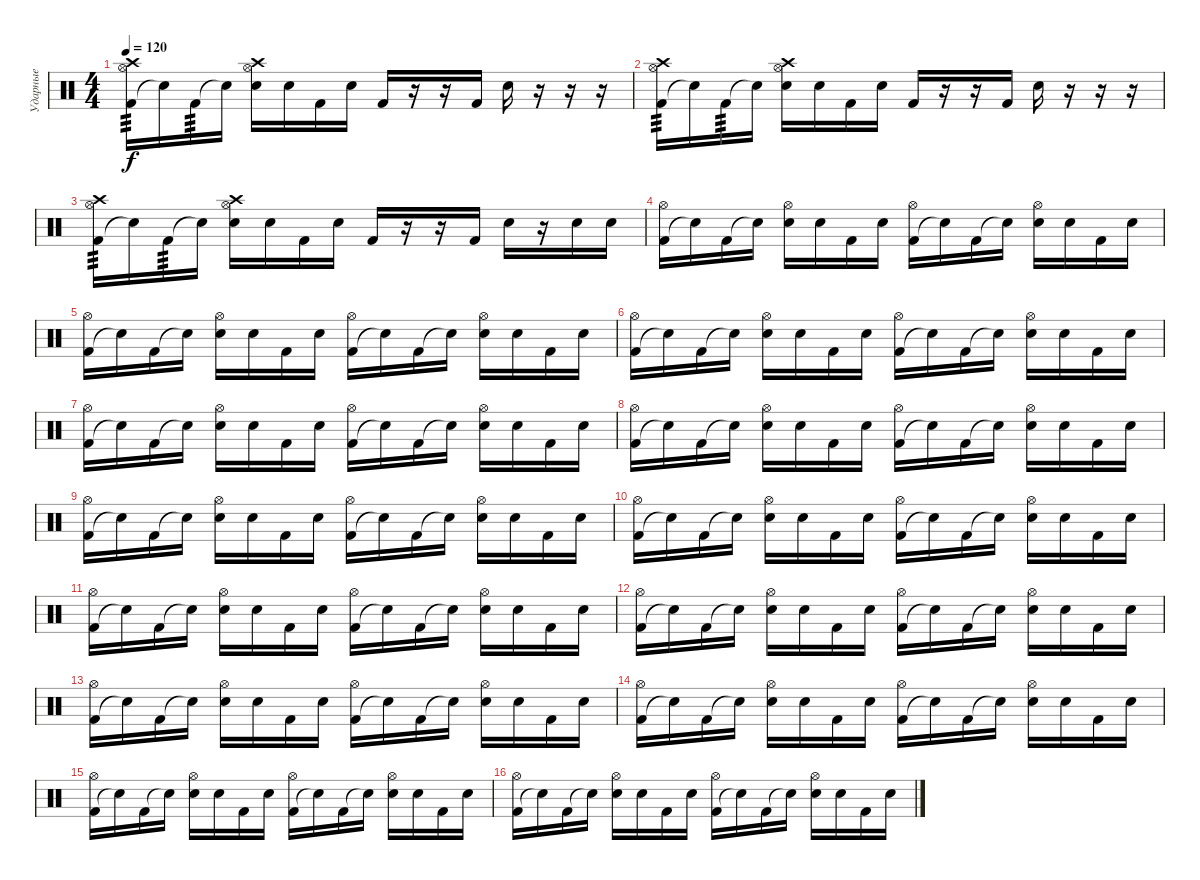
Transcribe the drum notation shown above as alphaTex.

\track ("Ударные" "Ударные") {instrument percussion}
\staff {score}
\articulation defaults
\ts (4 4)
\tempo 120
\clef neutral
\ks c
("Kick (hit) 2" "Hi-Hat (open)" "Crash high (hit)").16{tp 3 dy f} "Snare (hit)"{t}.16 "Kick (hit) 2".16{tp 3} "Snare (hit)"{t}.16 ("Electric Snare (hit)" "Hi-Hat (open)" "Crash high (hit)").16 "Electric Snare (hit)".16 "Kick (hit) 2".16 "Electric Snare (hit)".16 "Kick (hit) 2".16 r.16 r.16 "Kick (hit) 2".16 "Electric Snare (hit)".16 r.16 r.16 r.16 |
("Kick (hit) 2" "Hi-Hat (open)" "Crash high (hit)").16{tp 3} "Snare (hit)"{t}.16 "Kick (hit) 2".16{tp 3} "Snare (hit)"{t}.16 ("Electric Snare (hit)" "Hi-Hat (open)" "Crash high (hit)").16 "Electric Snare (hit)".16 "Kick (hit) 2".16 "Electric Snare (hit)".16 "Kick (hit) 2".16 r.16 r.16 "Kick (hit) 2".16 "Electric Snare (hit)".16 r.16 r.16 r.16 |
("Kick (hit) 2" "Hi-Hat (open)" "Crash high (hit)").16{tp 3} "Snare (hit)"{t}.16 "Kick (hit) 2".16{tp 3} "Snare (hit)"{t}.16 ("Electric Snare (hit)" "Hi-Hat (open)" "Crash high (hit)").16 "Electric Snare (hit)".16 "Kick (hit) 2".16 "Electric Snare (hit)".16 "Kick (hit) 2".16 r.16 r.16 "Kick (hit) 2".16 "Electric Snare (hit)".16 r.16 "Electric Snare (hit)".16 "Electric Snare (hit)".16 |
("Kick (hit) 2" "Hi-Hat (open)").16 "Snare (hit)"{t}.16 "Kick (hit) 2".16 "Snare (hit)"{t}.16 ("Electric Snare (hit)" "Hi-Hat (open)").16 "Electric Snare (hit)".16 "Kick (hit) 2".16 "Electric Snare (hit)".16 ("Kick (hit) 2" "Hi-Hat (open)").16 "Snare (hit)"{t}.16 "Kick (hit) 2".16 "Snare (hit)"{t}.16 ("Electric Snare (hit)" "Hi-Hat (open)").16 "Electric Snare (hit)".16 "Kick (hit) 2".16 "Electric Snare (hit)".16 |
("Kick (hit) 2" "Hi-Hat (open)").16 "Snare (hit)"{t}.16 "Kick (hit) 2".16 "Snare (hit)"{t}.16 ("Electric Snare (hit)" "Hi-Hat (open)").16 "Electric Snare (hit)".16 "Kick (hit) 2".16 "Electric Snare (hit)".16 ("Kick (hit) 2" "Hi-Hat (open)").16 "Snare (hit)"{t}.16 "Kick (hit) 2".16 "Snare (hit)"{t}.16 ("Electric Snare (hit)" "Hi-Hat (open)").16 "Electric Snare (hit)".16 "Kick (hit) 2".16 "Electric Snare (hit)".16 |
("Kick (hit) 2" "Hi-Hat (open)").16 "Snare (hit)"{t}.16 "Kick (hit) 2".16 "Snare (hit)"{t}.16 ("Electric Snare (hit)" "Hi-Hat (open)").16 "Electric Snare (hit)".16 "Kick (hit) 2".16 "Electric Snare (hit)".16 ("Kick (hit) 2" "Hi-Hat (open)").16 "Snare (hit)"{t}.16 "Kick (hit) 2".16 "Snare (hit)"{t}.16 ("Electric Snare (hit)" "Hi-Hat (open)").16 "Electric Snare (hit)".16 "Kick (hit) 2".16 "Electric Snare (hit)".16 |
("Kick (hit) 2" "Hi-Hat (open)").16 "Snare (hit)"{t}.16 "Kick (hit) 2".16 "Snare (hit)"{t}.16 ("Electric Snare (hit)" "Hi-Hat (open)").16 "Electric Snare (hit)".16 "Kick (hit) 2".16 "Electric Snare (hit)".16 ("Kick (hit) 2" "Hi-Hat (open)").16 "Snare (hit)"{t}.16 "Kick (hit) 2".16 "Snare (hit)"{t}.16 ("Electric Snare (hit)" "Hi-Hat (open)").16 "Electric Snare (hit)".16 "Kick (hit) 2".16 "Electric Snare (hit)".16 |
("Kick (hit) 2" "Hi-Hat (open)").16 "Snare (hit)"{t}.16 "Kick (hit) 2".16 "Snare (hit)"{t}.16 ("Electric Snare (hit)" "Hi-Hat (open)").16 "Electric Snare (hit)".16 "Kick (hit) 2".16 "Electric Snare (hit)".16 ("Kick (hit) 2" "Hi-Hat (open)").16 "Snare (hit)"{t}.16 "Kick (hit) 2".16 "Snare (hit)"{t}.16 ("Electric Snare (hit)" "Hi-Hat (open)").16 "Electric Snare (hit)".16 "Kick (hit) 2".16 "Electric Snare (hit)".16 |
("Kick (hit) 2" "Hi-Hat (open)").16 "Snare (hit)"{t}.16 "Kick (hit) 2".16 "Snare (hit)"{t}.16 ("Electric Snare (hit)" "Hi-Hat (open)").16 "Electric Snare (hit)".16 "Kick (hit) 2".16 "Electric Snare (hit)".16 ("Kick (hit) 2" "Hi-Hat (open)").16 "Snare (hit)"{t}.16 "Kick (hit) 2".16 "Snare (hit)"{t}.16 ("Electric Snare (hit)" "Hi-Hat (open)").16 "Electric Snare (hit)".16 "Kick (hit) 2".16 "Electric Snare (hit)".16 |
("Kick (hit) 2" "Hi-Hat (open)").16 "Snare (hit)"{t}.16 "Kick (hit) 2".16 "Snare (hit)"{t}.16 ("Electric Snare (hit)" "Hi-Hat (open)").16 "Electric Snare (hit)".16 "Kick (hit) 2".16 "Electric Snare (hit)".16 ("Kick (hit) 2" "Hi-Hat (open)").16 "Snare (hit)"{t}.16 "Kick (hit) 2".16 "Snare (hit)"{t}.16 ("Electric Snare (hit)" "Hi-Hat (open)").16 "Electric Snare (hit)".16 "Kick (hit) 2".16 "Electric Snare (hit)".16 |
("Kick (hit) 2" "Hi-Hat (open)").16 "Snare (hit)"{t}.16 "Kick (hit) 2".16 "Snare (hit)"{t}.16 ("Electric Snare (hit)" "Hi-Hat (open)").16 "Electric Snare (hit)".16 "Kick (hit) 2".16 "Electric Snare (hit)".16 ("Kick (hit) 2" "Hi-Hat (open)").16 "Snare (hit)"{t}.16 "Kick (hit) 2".16 "Snare (hit)"{t}.16 ("Electric Snare (hit)" "Hi-Hat (open)").16 "Electric Snare (hit)".16 "Kick (hit) 2".16 "Electric Snare (hit)".16 |
("Kick (hit) 2" "Hi-Hat (open)").16 "Snare (hit)"{t}.16 "Kick (hit) 2".16 "Snare (hit)"{t}.16 ("Electric Snare (hit)" "Hi-Hat (open)").16 "Electric Snare (hit)".16 "Kick (hit) 2".16 "Electric Snare (hit)".16 ("Kick (hit) 2" "Hi-Hat (open)").16 "Snare (hit)"{t}.16 "Kick (hit) 2".16 "Snare (hit)"{t}.16 ("Electric Snare (hit)" "Hi-Hat (open)").16 "Electric Snare (hit)".16 "Kick (hit) 2".16 "Electric Snare (hit)".16 |
("Kick (hit) 2" "Hi-Hat (open)").16 "Snare (hit)"{t}.16 "Kick (hit) 2".16 "Snare (hit)"{t}.16 ("Electric Snare (hit)" "Hi-Hat (open)").16 "Electric Snare (hit)".16 "Kick (hit) 2".16 "Electric Snare (hit)".16 ("Kick (hit) 2" "Hi-Hat (open)").16 "Snare (hit)"{t}.16 "Kick (hit) 2".16 "Snare (hit)"{t}.16 ("Electric Snare (hit)" "Hi-Hat (open)").16 "Electric Snare (hit)".16 "Kick (hit) 2".16 "Electric Snare (hit)".16 |
("Kick (hit) 2" "Hi-Hat (open)").16 "Snare (hit)"{t}.16 "Kick (hit) 2".16 "Snare (hit)"{t}.16 ("Electric Snare (hit)" "Hi-Hat (open)").16 "Electric Snare (hit)".16 "Kick (hit) 2".16 "Electric Snare (hit)".16 ("Kick (hit) 2" "Hi-Hat (open)").16 "Snare (hit)"{t}.16 "Kick (hit) 2".16 "Snare (hit)"{t}.16 ("Electric Snare (hit)" "Hi-Hat (open)").16 "Electric Snare (hit)".16 "Kick (hit) 2".16 "Electric Snare (hit)".16 |
("Kick (hit) 2" "Hi-Hat (open)").16 "Snare (hit)"{t}.16 "Kick (hit) 2".16 "Snare (hit)"{t}.16 ("Electric Snare (hit)" "Hi-Hat (open)").16 "Electric Snare (hit)".16 "Kick (hit) 2".16 "Electric Snare (hit)".16 ("Kick (hit) 2" "Hi-Hat (open)").16 "Snare (hit)"{t}.16 "Kick (hit) 2".16 "Snare (hit)"{t}.16 ("Electric Snare (hit)" "Hi-Hat (open)").16 "Electric Snare (hit)".16 "Kick (hit) 2".16 "Electric Snare (hit)".16 |
("Kick (hit) 2" "Hi-Hat (open)").16 "Snare (hit)"{t}.16 "Kick (hit) 2".16 "Snare (hit)"{t}.16 ("Electric Snare (hit)" "Hi-Hat (open)").16 "Electric Snare (hit)".16 "Kick (hit) 2".16 "Electric Snare (hit)".16 ("Kick (hit) 2" "Hi-Hat (open)").16 "Snare (hit)"{t}.16 "Kick (hit) 2".16 "Snare (hit)"{t}.16 ("Electric Snare (hit)" "Hi-Hat (open)").16 "Electric Snare (hit)".16 "Kick (hit) 2".16 "Electric Snare (hit)".16
